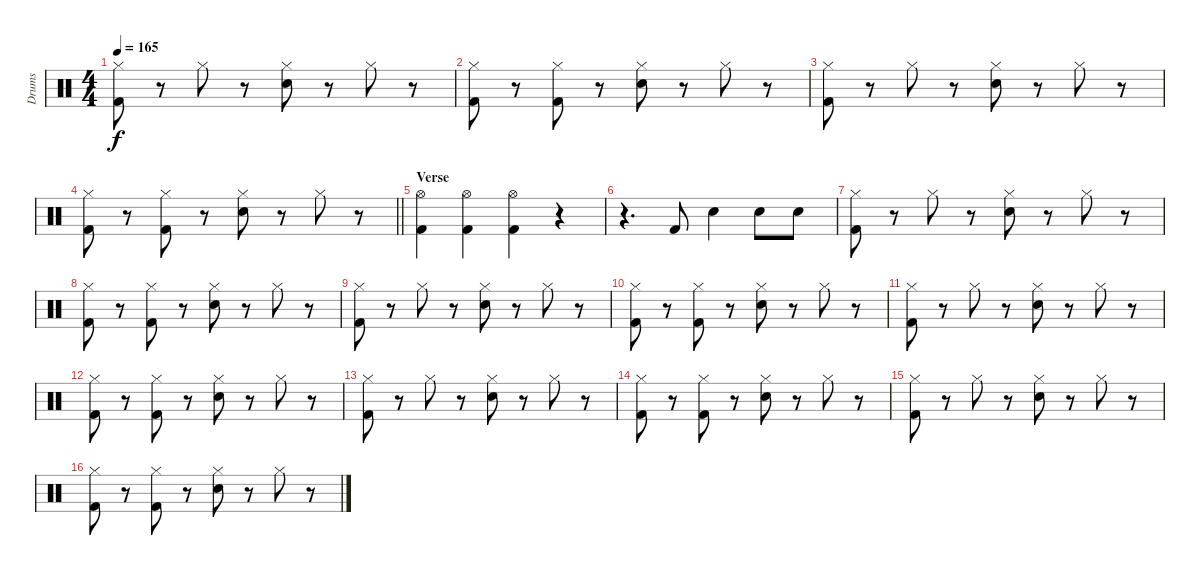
\track ("Drums" "Drums") {instrument percussion}
\staff {score}
\articulation defaults
\ts (4 4)
\tempo 165
\clef neutral
\ks c
("Hi-Hat (closed)" "Kick (hit) 2").8{dy f} r.8 "Hi-Hat (closed)".8 r.8 ("Hi-Hat (closed)" "Electric Snare (hit)").8 r.8 "Hi-Hat (closed)".8 r.8 |
("Hi-Hat (closed)" "Kick (hit) 2").8 r.8 ("Hi-Hat (closed)" "Kick (hit) 2").8 r.8 ("Hi-Hat (closed)" "Electric Snare (hit)").8 r.8 "Hi-Hat (closed)".8 r.8 |
("Hi-Hat (closed)" "Kick (hit) 2").8 r.8 "Hi-Hat (closed)".8 r.8 ("Hi-Hat (closed)" "Electric Snare (hit)").8 r.8 "Hi-Hat (closed)".8 r.8 |
\barLineRight lightlight
("Hi-Hat (closed)" "Kick (hit) 2").8 r.8 ("Hi-Hat (closed)" "Kick (hit) 2").8 r.8 ("Hi-Hat (closed)" "Electric Snare (hit)").8 r.8 "Hi-Hat (closed)".8 r.8 |
\section ("" "Verse")
("Hi-Hat (open)" "Kick (hit) 2").4 ("Hi-Hat (open)" "Kick (hit) 2").4 ("Hi-Hat (open)" "Kick (hit) 2").4 r.4 |
r.4{d} "Kick (hit) 2".8 "Electric Snare (hit)".4 "Electric Snare (hit)".8 "Electric Snare (hit)".8 |
("Hi-Hat (closed)" "Kick (hit) 2").8 r.8 "Hi-Hat (closed)".8 r.8 ("Hi-Hat (closed)" "Electric Snare (hit)").8 r.8 "Hi-Hat (closed)".8 r.8 |
("Hi-Hat (closed)" "Kick (hit) 2").8 r.8 ("Hi-Hat (closed)" "Kick (hit) 2").8 r.8 ("Hi-Hat (closed)" "Electric Snare (hit)").8 r.8 "Hi-Hat (closed)".8 r.8 |
("Hi-Hat (closed)" "Kick (hit) 2").8 r.8 "Hi-Hat (closed)".8 r.8 ("Hi-Hat (closed)" "Electric Snare (hit)").8 r.8 "Hi-Hat (closed)".8 r.8 |
("Hi-Hat (closed)" "Kick (hit) 2").8 r.8 ("Hi-Hat (closed)" "Kick (hit) 2").8 r.8 ("Hi-Hat (closed)" "Electric Snare (hit)").8 r.8 "Hi-Hat (closed)".8 r.8 |
("Hi-Hat (closed)" "Kick (hit) 2").8 r.8 "Hi-Hat (closed)".8 r.8 ("Hi-Hat (closed)" "Electric Snare (hit)").8 r.8 "Hi-Hat (closed)".8 r.8 |
("Hi-Hat (closed)" "Kick (hit) 2").8 r.8 ("Hi-Hat (closed)" "Kick (hit) 2").8 r.8 ("Hi-Hat (closed)" "Electric Snare (hit)").8 r.8 "Hi-Hat (closed)".8 r.8 |
("Hi-Hat (closed)" "Kick (hit) 2").8 r.8 "Hi-Hat (closed)".8 r.8 ("Hi-Hat (closed)" "Electric Snare (hit)").8 r.8 "Hi-Hat (closed)".8 r.8 |
("Hi-Hat (closed)" "Kick (hit) 2").8 r.8 ("Hi-Hat (closed)" "Kick (hit) 2").8 r.8 ("Hi-Hat (closed)" "Electric Snare (hit)").8 r.8 "Hi-Hat (closed)".8 r.8 |
("Hi-Hat (closed)" "Kick (hit) 2").8 r.8 "Hi-Hat (closed)".8 r.8 ("Hi-Hat (closed)" "Electric Snare (hit)").8 r.8 "Hi-Hat (closed)".8 r.8 |
("Hi-Hat (closed)" "Kick (hit) 2").8 r.8 ("Hi-Hat (closed)" "Kick (hit) 2").8 r.8 ("Hi-Hat (closed)" "Electric Snare (hit)").8 r.8 "Hi-Hat (closed)".8 r.8
